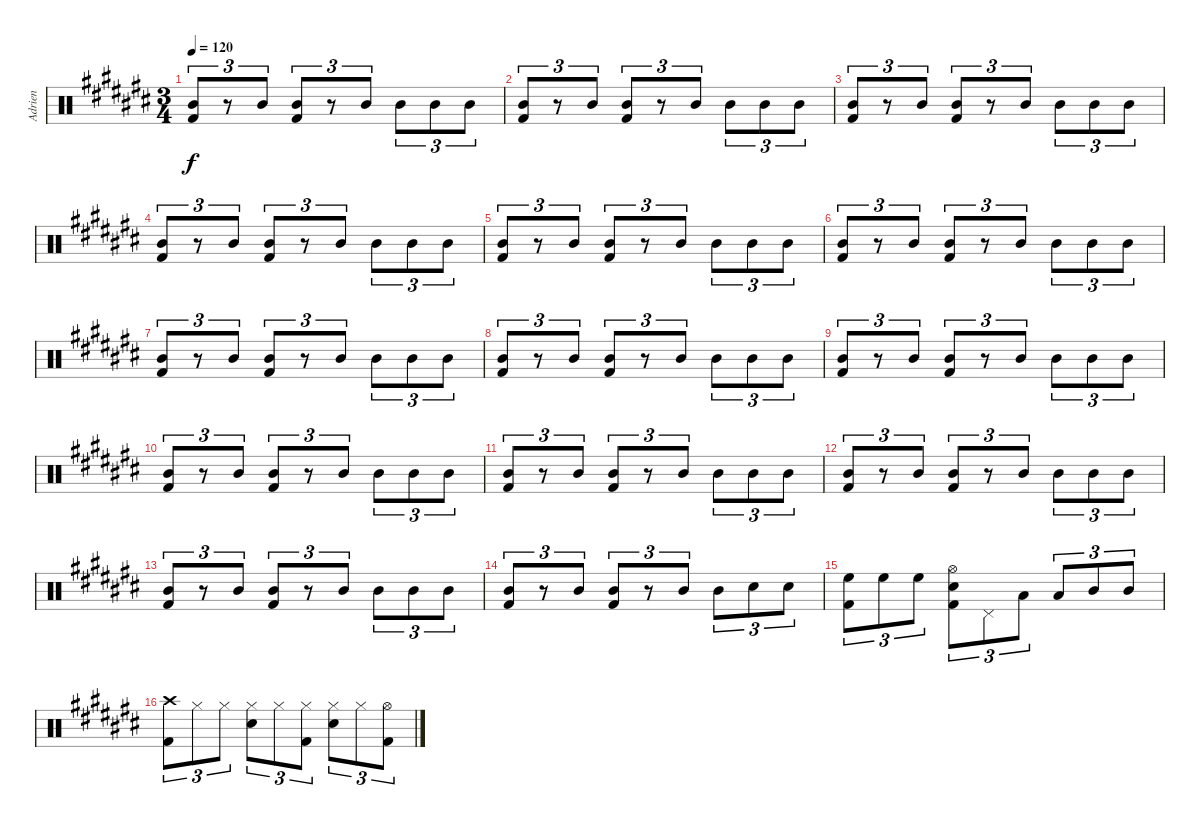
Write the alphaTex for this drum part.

\track ("Adrien" "Adrien") {instrument percussion}
\staff {score}
\articulation defaults
\ts (3 4)
\tempo 120
\clef neutral
\ks c#
("Mid Tom (hit)" "Kick (hit) 2").8{tu (3 2) dy f} r.8{tu (3 2)} "Mid Tom (hit)".8{tu (3 2)} ("Mid Tom (hit)" "Kick (hit) 2").8{tu (3 2)} r.8{tu (3 2)} "Mid Tom (hit)".8{tu (3 2)} "Mid Tom (hit)".8{tu (3 2)} "Mid Tom (hit)".8{tu (3 2)} "Mid Tom (hit)".8{tu (3 2)} |
("Mid Tom (hit)" "Kick (hit) 2").8{tu (3 2)} r.8{tu (3 2)} "Mid Tom (hit)".8{tu (3 2)} ("Mid Tom (hit)" "Kick (hit) 2").8{tu (3 2)} r.8{tu (3 2)} "Mid Tom (hit)".8{tu (3 2)} "Mid Tom (hit)".8{tu (3 2)} "Mid Tom (hit)".8{tu (3 2)} "Mid Tom (hit)".8{tu (3 2)} |
("Mid Tom (hit)" "Kick (hit) 2").8{tu (3 2)} r.8{tu (3 2)} "Mid Tom (hit)".8{tu (3 2)} ("Mid Tom (hit)" "Kick (hit) 2").8{tu (3 2)} r.8{tu (3 2)} "Mid Tom (hit)".8{tu (3 2)} "Mid Tom (hit)".8{tu (3 2)} "Mid Tom (hit)".8{tu (3 2)} "Mid Tom (hit)".8{tu (3 2)} |
("Mid Tom (hit)" "Kick (hit) 2").8{tu (3 2)} r.8{tu (3 2)} "Mid Tom (hit)".8{tu (3 2)} ("Mid Tom (hit)" "Kick (hit) 2").8{tu (3 2)} r.8{tu (3 2)} "Mid Tom (hit)".8{tu (3 2)} "Mid Tom (hit)".8{tu (3 2)} "Mid Tom (hit)".8{tu (3 2)} "Mid Tom (hit)".8{tu (3 2)} |
("Mid Tom (hit)" "Kick (hit) 2").8{tu (3 2)} r.8{tu (3 2)} "Mid Tom (hit)".8{tu (3 2)} ("Mid Tom (hit)" "Kick (hit) 2").8{tu (3 2)} r.8{tu (3 2)} "Mid Tom (hit)".8{tu (3 2)} "Mid Tom (hit)".8{tu (3 2)} "Mid Tom (hit)".8{tu (3 2)} "Mid Tom (hit)".8{tu (3 2)} |
("Mid Tom (hit)" "Kick (hit) 2").8{tu (3 2)} r.8{tu (3 2)} "Mid Tom (hit)".8{tu (3 2)} ("Mid Tom (hit)" "Kick (hit) 2").8{tu (3 2)} r.8{tu (3 2)} "Mid Tom (hit)".8{tu (3 2)} "Mid Tom (hit)".8{tu (3 2)} "Mid Tom (hit)".8{tu (3 2)} "Mid Tom (hit)".8{tu (3 2)} |
("Mid Tom (hit)" "Kick (hit) 2").8{tu (3 2)} r.8{tu (3 2)} "Mid Tom (hit)".8{tu (3 2)} ("Mid Tom (hit)" "Kick (hit) 2").8{tu (3 2)} r.8{tu (3 2)} "Mid Tom (hit)".8{tu (3 2)} "Mid Tom (hit)".8{tu (3 2)} "Mid Tom (hit)".8{tu (3 2)} "Mid Tom (hit)".8{tu (3 2)} |
("Mid Tom (hit)" "Kick (hit) 2").8{tu (3 2)} r.8{tu (3 2)} "Mid Tom (hit)".8{tu (3 2)} ("Mid Tom (hit)" "Kick (hit) 2").8{tu (3 2)} r.8{tu (3 2)} "Mid Tom (hit)".8{tu (3 2)} "Mid Tom (hit)".8{tu (3 2)} "Mid Tom (hit)".8{tu (3 2)} "Mid Tom (hit)".8{tu (3 2)} |
("Mid Tom (hit)" "Kick (hit) 2").8{tu (3 2)} r.8{tu (3 2)} "Mid Tom (hit)".8{tu (3 2)} ("Mid Tom (hit)" "Kick (hit) 2").8{tu (3 2)} r.8{tu (3 2)} "Mid Tom (hit)".8{tu (3 2)} "Mid Tom (hit)".8{tu (3 2)} "Mid Tom (hit)".8{tu (3 2)} "Mid Tom (hit)".8{tu (3 2)} |
("Mid Tom (hit)" "Kick (hit) 2").8{tu (3 2)} r.8{tu (3 2)} "Mid Tom (hit)".8{tu (3 2)} ("Mid Tom (hit)" "Kick (hit) 2").8{tu (3 2)} r.8{tu (3 2)} "Mid Tom (hit)".8{tu (3 2)} "Mid Tom (hit)".8{tu (3 2)} "Mid Tom (hit)".8{tu (3 2)} "Mid Tom (hit)".8{tu (3 2)} |
("Mid Tom (hit)" "Kick (hit) 2").8{tu (3 2)} r.8{tu (3 2)} "Mid Tom (hit)".8{tu (3 2)} ("Mid Tom (hit)" "Kick (hit) 2").8{tu (3 2)} r.8{tu (3 2)} "Mid Tom (hit)".8{tu (3 2)} "Mid Tom (hit)".8{tu (3 2)} "Mid Tom (hit)".8{tu (3 2)} "Mid Tom (hit)".8{tu (3 2)} |
("Mid Tom (hit)" "Kick (hit) 2").8{tu (3 2)} r.8{tu (3 2)} "Mid Tom (hit)".8{tu (3 2)} ("Mid Tom (hit)" "Kick (hit) 2").8{tu (3 2)} r.8{tu (3 2)} "Mid Tom (hit)".8{tu (3 2)} "Mid Tom (hit)".8{tu (3 2)} "Mid Tom (hit)".8{tu (3 2)} "Mid Tom (hit)".8{tu (3 2)} |
("Mid Tom (hit)" "Kick (hit) 2").8{tu (3 2)} r.8{tu (3 2)} "Mid Tom (hit)".8{tu (3 2)} ("Mid Tom (hit)" "Kick (hit) 2").8{tu (3 2)} r.8{tu (3 2)} "Mid Tom (hit)".8{tu (3 2)} "Mid Tom (hit)".8{tu (3 2)} "Mid Tom (hit)".8{tu (3 2)} "Mid Tom (hit)".8{tu (3 2)} |
("Mid Tom (hit)" "Kick (hit) 2").8{tu (3 2)} r.8{tu (3 2)} "Mid Tom (hit)".8{tu (3 2)} ("Mid Tom (hit)" "Kick (hit) 2").8{tu (3 2)} r.8{tu (3 2)} "Mid Tom (hit)".8{tu (3 2)} "Mid Tom (hit)".8{tu (3 2)} "Snare (hit) 2".8{tu (3 2)} "Electric Snare (hit)".8{tu (3 2)} |
("High Floor Tom (hit)" "Kick (hit) 2").8{tu (3 2)} "High Floor Tom (hit)".8{tu (3 2)} "High Floor Tom (hit)".8{tu (3 2)} ("Hi-Hat (open)" "Snare (hit) 2" "Kick (hit) 2").8{tu (3 2)} "Pedal Hi-Hat (hit)".8{tu (3 2)} "Low Tom (hit)".8{tu (3 2)} "Low Tom (hit)".8{tu (3 2)} "Mid Tom (hit)".8{tu (3 2)} "Mid Tom (hit)".8{tu (3 2)} |
("Crash high (hit)" "Kick (hit) 2").8{tu (3 2)} "Hi-Hat (closed)".8{tu (3 2)} "Hi-Hat (closed)".8{tu (3 2)} ("Hi-Hat (closed)" "Electric Snare (hit)").8{tu (3 2)} "Hi-Hat (closed)".8{tu (3 2)} ("Hi-Hat (closed)" "Kick (hit) 2").8{tu (3 2)} ("Hi-Hat (closed)" "Electric Snare (hit)").8{tu (3 2)} "Hi-Hat (closed)".8{tu (3 2)} ("Hi-Hat (open)" "Kick (hit) 2").8{tu (3 2)}
